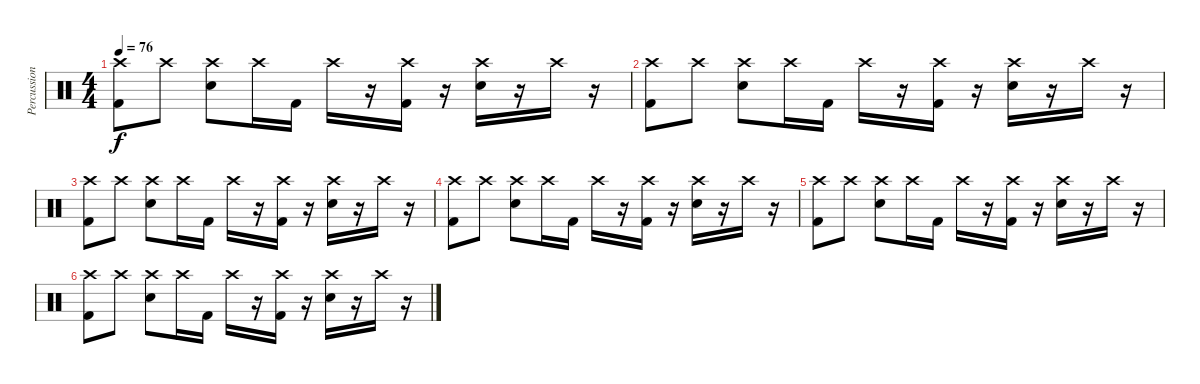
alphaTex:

\track ("Percussion" "Percussion") {instrument percussion}
\staff {score}
\articulation defaults
\ts (4 4)
\tempo 76
\clef neutral
\ks c
("Crash high (hit)" "Kick (hit) 2").8{dy f} "Crash high (hit)".8 ("Crash high (hit)" "Electric Snare (hit)").8 "Crash high (hit)".16 "Kick (hit) 2".16 "Crash high (hit)".16 r.16 ("Crash high (hit)" "Kick (hit) 2").16 r.16 ("Crash high (hit)" "Electric Snare (hit)").16 r.16 "Crash high (hit)".16 r.16 |
("Crash high (hit)" "Kick (hit) 2").8 "Crash high (hit)".8 ("Crash high (hit)" "Electric Snare (hit)").8 "Crash high (hit)".16 "Kick (hit) 2".16 "Crash high (hit)".16 r.16 ("Crash high (hit)" "Kick (hit) 2").16 r.16 ("Crash high (hit)" "Electric Snare (hit)").16 r.16 "Crash high (hit)".16 r.16 |
("Crash high (hit)" "Kick (hit) 2").8 "Crash high (hit)".8 ("Crash high (hit)" "Electric Snare (hit)").8 "Crash high (hit)".16 "Kick (hit) 2".16 "Crash high (hit)".16 r.16 ("Crash high (hit)" "Kick (hit) 2").16 r.16 ("Crash high (hit)" "Electric Snare (hit)").16 r.16 "Crash high (hit)".16 r.16 |
("Crash high (hit)" "Kick (hit) 2").8 "Crash high (hit)".8 ("Crash high (hit)" "Electric Snare (hit)").8 "Crash high (hit)".16 "Kick (hit) 2".16 "Crash high (hit)".16 r.16 ("Crash high (hit)" "Kick (hit) 2").16 r.16 ("Crash high (hit)" "Electric Snare (hit)").16 r.16 "Crash high (hit)".16 r.16 |
("Crash high (hit)" "Kick (hit) 2").8 "Crash high (hit)".8 ("Crash high (hit)" "Electric Snare (hit)").8 "Crash high (hit)".16 "Kick (hit) 2".16 "Crash high (hit)".16 r.16 ("Crash high (hit)" "Kick (hit) 2").16 r.16 ("Crash high (hit)" "Electric Snare (hit)").16 r.16 "Crash high (hit)".16 r.16 |
("Crash high (hit)" "Kick (hit) 2").8 "Crash high (hit)".8 ("Crash high (hit)" "Electric Snare (hit)").8 "Crash high (hit)".16 "Kick (hit) 2".16 "Crash high (hit)".16 r.16 ("Crash high (hit)" "Kick (hit) 2").16 r.16 ("Crash high (hit)" "Electric Snare (hit)").16 r.16 "Crash high (hit)".16 r.16
